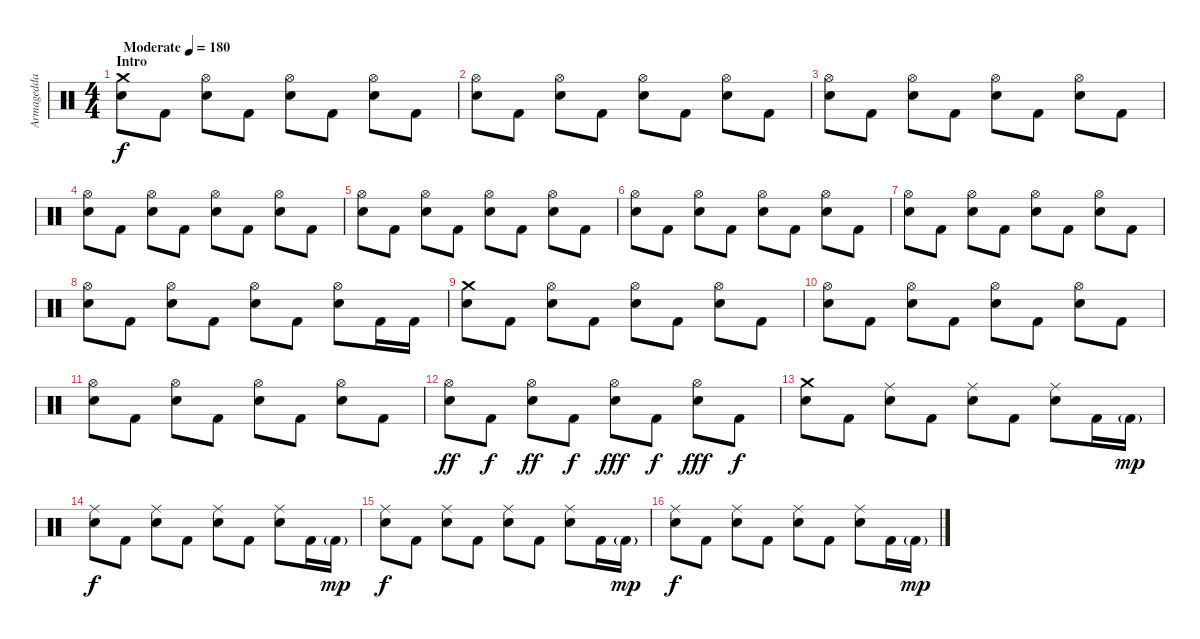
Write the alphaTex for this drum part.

\track ("Armagedda" "Armagedda") {instrument percussion}
\staff {score}
\articulation defaults
\ts (4 4)
\section ("" "Intro")
\tempo (180 "Moderate")
\clef neutral
\ks c
("Crash medium (hit)" "Electric Snare (hit)").8{dy f} "Kick (hit) 2".8 ("Hi-Hat (open)" "Electric Snare (hit)").8 "Kick (hit) 2".8 ("Hi-Hat (open)" "Electric Snare (hit)").8 "Kick (hit) 2".8 ("Hi-Hat (open)" "Electric Snare (hit)").8 "Kick (hit) 2".8 |
("Hi-Hat (open)" "Electric Snare (hit)").8 "Kick (hit) 2".8 ("Hi-Hat (open)" "Electric Snare (hit)").8 "Kick (hit) 2".8 ("Hi-Hat (open)" "Electric Snare (hit)").8 "Kick (hit) 2".8 ("Hi-Hat (open)" "Electric Snare (hit)").8 "Kick (hit) 2".8 |
("Hi-Hat (open)" "Electric Snare (hit)").8 "Kick (hit) 2".8 ("Hi-Hat (open)" "Electric Snare (hit)").8 "Kick (hit) 2".8 ("Hi-Hat (open)" "Electric Snare (hit)").8 "Kick (hit) 2".8 ("Hi-Hat (open)" "Electric Snare (hit)").8 "Kick (hit) 2".8 |
("Hi-Hat (open)" "Electric Snare (hit)").8 "Kick (hit) 2".8 ("Hi-Hat (open)" "Electric Snare (hit)").8 "Kick (hit) 2".8 ("Hi-Hat (open)" "Electric Snare (hit)").8 "Kick (hit) 2".8 ("Hi-Hat (open)" "Electric Snare (hit)").8 "Kick (hit) 2".8 |
("Hi-Hat (open)" "Electric Snare (hit)").8 "Kick (hit) 2".8 ("Hi-Hat (open)" "Electric Snare (hit)").8 "Kick (hit) 2".8 ("Hi-Hat (open)" "Electric Snare (hit)").8 "Kick (hit) 2".8 ("Hi-Hat (open)" "Electric Snare (hit)").8 "Kick (hit) 2".8 |
("Hi-Hat (open)" "Electric Snare (hit)").8 "Kick (hit) 2".8 ("Hi-Hat (open)" "Electric Snare (hit)").8 "Kick (hit) 2".8 ("Hi-Hat (open)" "Electric Snare (hit)").8 "Kick (hit) 2".8 ("Hi-Hat (open)" "Electric Snare (hit)").8 "Kick (hit) 2".8 |
("Hi-Hat (open)" "Electric Snare (hit)").8 "Kick (hit) 2".8 ("Hi-Hat (open)" "Electric Snare (hit)").8 "Kick (hit) 2".8 ("Hi-Hat (open)" "Electric Snare (hit)").8 "Kick (hit) 2".8 ("Hi-Hat (open)" "Electric Snare (hit)").8 "Kick (hit) 2".8 |
("Hi-Hat (open)" "Electric Snare (hit)").8 "Kick (hit) 2".8 ("Hi-Hat (open)" "Electric Snare (hit)").8 "Kick (hit) 2".8 ("Hi-Hat (open)" "Electric Snare (hit)").8 "Kick (hit) 2".8 ("Hi-Hat (open)" "Electric Snare (hit)").8 "Kick (hit) 2".16 "Kick (hit) 2".16 |
("Crash medium (hit)" "Electric Snare (hit)").8 "Kick (hit) 2".8 ("Hi-Hat (open)" "Electric Snare (hit)").8 "Kick (hit) 2".8 ("Hi-Hat (open)" "Electric Snare (hit)").8 "Kick (hit) 2".8 ("Hi-Hat (open)" "Electric Snare (hit)").8 "Kick (hit) 2".8 |
("Hi-Hat (open)" "Electric Snare (hit)").8 "Kick (hit) 2".8 ("Hi-Hat (open)" "Electric Snare (hit)").8 "Kick (hit) 2".8 ("Hi-Hat (open)" "Electric Snare (hit)").8 "Kick (hit) 2".8 ("Hi-Hat (open)" "Electric Snare (hit)").8 "Kick (hit) 2".8 |
("Hi-Hat (open)" "Electric Snare (hit)").8 "Kick (hit) 2".8 ("Hi-Hat (open)" "Electric Snare (hit)").8 "Kick (hit) 2".8 ("Hi-Hat (open)" "Electric Snare (hit)").8 "Kick (hit) 2".8 ("Hi-Hat (open)" "Electric Snare (hit)").8 "Kick (hit) 2".8 |
("Hi-Hat (open)" "Electric Snare (hit)").8{dy ff} "Kick (hit) 2".8{dy f} ("Hi-Hat (open)" "Electric Snare (hit)").8{dy ff} "Kick (hit) 2".8{dy f} ("Hi-Hat (open)" "Electric Snare (hit)").8{dy fff} "Kick (hit) 2".8{dy f} ("Hi-Hat (open)" "Electric Snare (hit)").8{dy fff} "Kick (hit) 2".8{dy f} |
("Crash medium (hit)" "Electric Snare (hit)").8 "Kick (hit) 2".8 ("Ride (middle)" "Electric Snare (hit)").8 "Kick (hit) 2".8 ("Ride (middle)" "Electric Snare (hit)").8 "Kick (hit) 2".8 ("Ride (middle)" "Electric Snare (hit)").8 "Kick (hit) 2".16 "Kick (hit) 2"{g}.16{dy mp} |
("Ride (middle)" "Electric Snare (hit)").8{dy f} "Kick (hit) 2".8 ("Ride (middle)" "Electric Snare (hit)").8 "Kick (hit) 2".8 ("Ride (middle)" "Electric Snare (hit)").8 "Kick (hit) 2".8 ("Ride (middle)" "Electric Snare (hit)").8 "Kick (hit) 2".16 "Kick (hit) 2"{g}.16{dy mp} |
("Ride (middle)" "Electric Snare (hit)").8{dy f} "Kick (hit) 2".8 ("Ride (middle)" "Electric Snare (hit)").8 "Kick (hit) 2".8 ("Ride (middle)" "Electric Snare (hit)").8 "Kick (hit) 2".8 ("Ride (middle)" "Electric Snare (hit)").8 "Kick (hit) 2".16 "Kick (hit) 2"{g}.16{dy mp} |
("Ride (middle)" "Electric Snare (hit)").8{dy f} "Kick (hit) 2".8 ("Ride (middle)" "Electric Snare (hit)").8 "Kick (hit) 2".8 ("Ride (middle)" "Electric Snare (hit)").8 "Kick (hit) 2".8 ("Ride (middle)" "Electric Snare (hit)").8 "Kick (hit) 2".16 "Kick (hit) 2"{g}.16{dy mp}
